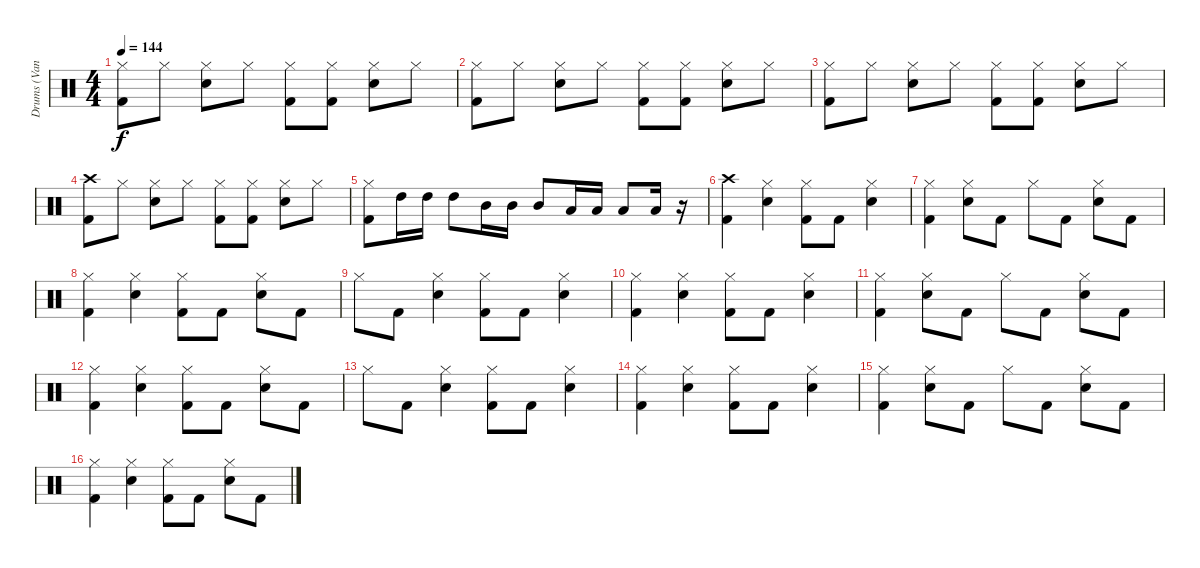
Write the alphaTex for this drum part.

\track ("Drums (Vandel)" "Drums (Van") {instrument percussion}
\staff {score}
\articulation defaults
\ts (4 4)
\tempo 144
\clef neutral
\ks c
("Hi-Hat (closed)" "Kick (hit) 2").8{dy f} "Hi-Hat (closed)".8 ("Hi-Hat (closed)" "Snare (hit) 2").8 "Hi-Hat (closed)".8 ("Hi-Hat (closed)" "Kick (hit) 2").8 ("Hi-Hat (closed)" "Kick (hit) 2").8 ("Hi-Hat (closed)" "Snare (hit) 2").8 "Hi-Hat (closed)".8 |
("Hi-Hat (closed)" "Kick (hit) 2").8 "Hi-Hat (closed)".8 ("Hi-Hat (closed)" "Snare (hit) 2").8 "Hi-Hat (closed)".8 ("Hi-Hat (closed)" "Kick (hit) 2").8 ("Hi-Hat (closed)" "Kick (hit) 2").8 ("Hi-Hat (closed)" "Snare (hit) 2").8 "Hi-Hat (closed)".8 |
("Hi-Hat (closed)" "Kick (hit) 2").8 "Hi-Hat (closed)".8 ("Hi-Hat (closed)" "Snare (hit) 2").8 "Hi-Hat (closed)".8 ("Hi-Hat (closed)" "Kick (hit) 2").8 ("Hi-Hat (closed)" "Kick (hit) 2").8 ("Hi-Hat (closed)" "Snare (hit) 2").8 "Hi-Hat (closed)".8 |
("Crash high (hit)" "Kick (hit) 2").8 "Hi-Hat (closed)".8 ("Hi-Hat (closed)" "Snare (hit) 2").8 "Hi-Hat (closed)".8 ("Hi-Hat (closed)" "Kick (hit) 2").8 ("Hi-Hat (closed)" "Kick (hit) 2").8 ("Hi-Hat (closed)" "Snare (hit) 2").8 "Hi-Hat (closed)".8 |
("Hi-Hat (closed)" "Kick (hit) 2").8 "High Tom (hit)".16 "High Tom (hit)".16 "High Tom (hit)".8 "Mid Tom (hit)".16 "Mid Tom (hit)".16 "Mid Tom (hit)".8 "Low Tom (hit)".16 "Low Tom (hit)".16 "Low Tom (hit)".8 "Low Floor Tom (hit)".16 r.16 |
("Crash high (hit)" "Kick (hit) 2").4 ("Hi-Hat (closed)" "Snare (hit) 2").4 ("Hi-Hat (closed)" "Kick (hit) 2").8 "Kick (hit) 2".8 ("Hi-Hat (closed)" "Snare (hit) 2").4 |
("Hi-Hat (closed)" "Kick (hit) 2").4 ("Hi-Hat (closed)" "Snare (hit) 2").8 "Kick (hit) 2".8 "Hi-Hat (closed)".8 "Kick (hit) 2".8 ("Hi-Hat (closed)" "Snare (hit) 2").8 "Kick (hit) 2".8 |
("Hi-Hat (closed)" "Kick (hit) 2").4 ("Hi-Hat (closed)" "Snare (hit) 2").4 ("Hi-Hat (closed)" "Kick (hit) 2").8 "Kick (hit) 2".8 ("Hi-Hat (closed)" "Snare (hit) 2").8 "Kick (hit) 2".8 |
"Hi-Hat (closed)".8 "Kick (hit) 2".8 ("Hi-Hat (closed)" "Snare (hit) 2").4 ("Hi-Hat (closed)" "Kick (hit) 2").8 "Kick (hit) 2".8 ("Hi-Hat (closed)" "Snare (hit) 2").4 |
("Hi-Hat (closed)" "Kick (hit) 2").4 ("Hi-Hat (closed)" "Snare (hit) 2").4 ("Hi-Hat (closed)" "Kick (hit) 2").8 "Kick (hit) 2".8 ("Hi-Hat (closed)" "Snare (hit) 2").4 |
("Hi-Hat (closed)" "Kick (hit) 2").4 ("Hi-Hat (closed)" "Snare (hit) 2").8 "Kick (hit) 2".8 "Hi-Hat (closed)".8 "Kick (hit) 2".8 ("Hi-Hat (closed)" "Snare (hit) 2").8 "Kick (hit) 2".8 |
("Hi-Hat (closed)" "Kick (hit) 2").4 ("Hi-Hat (closed)" "Snare (hit) 2").4 ("Hi-Hat (closed)" "Kick (hit) 2").8 "Kick (hit) 2".8 ("Hi-Hat (closed)" "Snare (hit) 2").8 "Kick (hit) 2".8 |
"Hi-Hat (closed)".8 "Kick (hit) 2".8 ("Hi-Hat (closed)" "Snare (hit) 2").4 ("Hi-Hat (closed)" "Kick (hit) 2").8 "Kick (hit) 2".8 ("Hi-Hat (closed)" "Snare (hit) 2").4 |
("Hi-Hat (closed)" "Kick (hit) 2").4 ("Hi-Hat (closed)" "Snare (hit) 2").4 ("Hi-Hat (closed)" "Kick (hit) 2").8 "Kick (hit) 2".8 ("Hi-Hat (closed)" "Snare (hit) 2").4 |
("Hi-Hat (closed)" "Kick (hit) 2").4 ("Hi-Hat (closed)" "Snare (hit) 2").8 "Kick (hit) 2".8 "Hi-Hat (closed)".8 "Kick (hit) 2".8 ("Hi-Hat (closed)" "Snare (hit) 2").8 "Kick (hit) 2".8 |
("Hi-Hat (closed)" "Kick (hit) 2").4 ("Hi-Hat (closed)" "Snare (hit) 2").4 ("Hi-Hat (closed)" "Kick (hit) 2").8 "Kick (hit) 2".8 ("Hi-Hat (closed)" "Snare (hit) 2").8 "Kick (hit) 2".8
